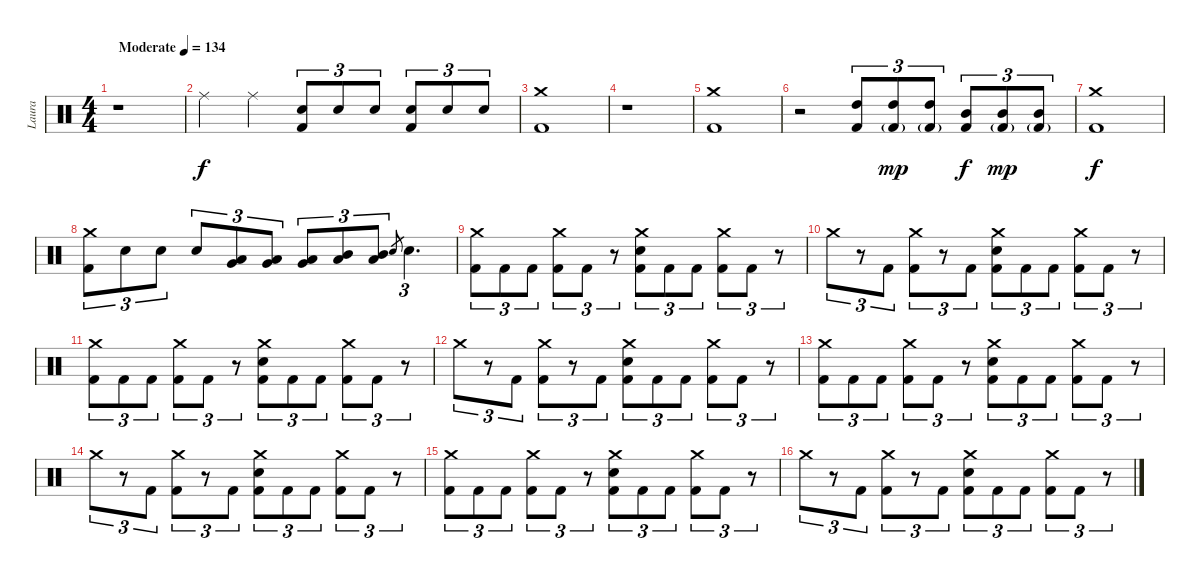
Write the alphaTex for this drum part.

\track ("Laura" "Laura") {instrument percussion}
\staff {score}
\articulation defaults
\ts (4 4)
\tempo (134 "Moderate")
\clef neutral
\ks c
r.1{dy f} |
"Ride (middle)".4 "Ride (middle)".4 ("Electric Snare (hit)" "Kick (hit) 2").8{tu (3 2)} "Electric Snare (hit)".8{tu (3 2)} "Electric Snare (hit)".8{tu (3 2)} ("Electric Snare (hit)" "Kick (hit) 2").8{tu (3 2)} "Electric Snare (hit)".8{tu (3 2)} "Electric Snare (hit)".8{tu (3 2)} |
("Crash medium (hit)" "Kick (hit) 2").1 |
r.1 |
("Crash medium (hit)" "Kick (hit) 2").1 |
r.2 ("High Tom (hit)" "Kick (hit) 2").8{tu (3 2)} ("High Tom (hit)" "Kick (hit) 2"{g}).8{tu (3 2) dy mp} ("High Tom (hit)" "Kick (hit) 2"{g}).8{tu (3 2)} ("Mid Tom (hit)" "Kick (hit) 2").8{tu (3 2) dy f} ("Mid Tom (hit)" "Kick (hit) 2"{g}).8{tu (3 2) dy mp} ("Mid Tom (hit)" "Kick (hit) 2"{g}).8{tu (3 2)} |
("Crash medium (hit)" "Kick (hit) 2").1{dy f} |
("Crash medium (hit)" "Kick (hit) 2").8{tu (3 2)} "Electric Snare (hit)".8{tu (3 2)} "Electric Snare (hit)".8{tu (3 2)} "Electric Snare (hit)".8{tu (3 2)} ("Very Low Tom (hit)" "Low Floor Tom (hit)").8{tu (3 2)} ("Very Low Tom (hit)" "Low Floor Tom (hit)").8{tu (3 2)} ("Very Low Tom (hit)" "Low Floor Tom (hit)").8{tu (3 2)} ("Mid Tom (hit)" "Low Tom (hit)").8{tu (3 2)} ("Mid Tom (hit)" "Low Tom (hit)").8{tu (3 2)} "Electric Snare (hit)".8{gr} "Electric Snare (hit)".4{d tu (3 2)} |
("Crash medium (hit)" "Kick (hit) 2").8{tu (3 2)} "Kick (hit) 2".8{tu (3 2)} "Kick (hit) 2".8{tu (3 2)} ("Crash medium (hit)" "Kick (hit) 2").8{tu (3 2)} "Kick (hit) 2".8{tu (3 2)} r.8{tu (3 2)} ("Crash medium (hit)" "Electric Snare (hit)" "Kick (hit) 2").8{tu (3 2)} "Kick (hit) 2".8{tu (3 2)} "Kick (hit) 2".8{tu (3 2)} ("Crash medium (hit)" "Kick (hit) 2").8{tu (3 2)} "Kick (hit) 2".8{tu (3 2)} r.8{tu (3 2)} |
"Crash medium (hit)".8{tu (3 2)} r.8{tu (3 2)} "Kick (hit) 2".8{tu (3 2)} ("Crash medium (hit)" "Kick (hit) 2").8{tu (3 2)} r.8{tu (3 2)} "Kick (hit) 2".8{tu (3 2)} ("Crash medium (hit)" "Electric Snare (hit)" "Kick (hit) 2").8{tu (3 2)} "Kick (hit) 2".8{tu (3 2)} "Kick (hit) 2".8{tu (3 2)} ("Crash medium (hit)" "Kick (hit) 2").8{tu (3 2)} "Kick (hit) 2".8{tu (3 2)} r.8{tu (3 2)} |
("Crash medium (hit)" "Kick (hit) 2").8{tu (3 2)} "Kick (hit) 2".8{tu (3 2)} "Kick (hit) 2".8{tu (3 2)} ("Crash medium (hit)" "Kick (hit) 2").8{tu (3 2)} "Kick (hit) 2".8{tu (3 2)} r.8{tu (3 2)} ("Crash medium (hit)" "Electric Snare (hit)" "Kick (hit) 2").8{tu (3 2)} "Kick (hit) 2".8{tu (3 2)} "Kick (hit) 2".8{tu (3 2)} ("Crash medium (hit)" "Kick (hit) 2").8{tu (3 2)} "Kick (hit) 2".8{tu (3 2)} r.8{tu (3 2)} |
"Crash medium (hit)".8{tu (3 2)} r.8{tu (3 2)} "Kick (hit) 2".8{tu (3 2)} ("Crash medium (hit)" "Kick (hit) 2").8{tu (3 2)} r.8{tu (3 2)} "Kick (hit) 2".8{tu (3 2)} ("Crash medium (hit)" "Electric Snare (hit)" "Kick (hit) 2").8{tu (3 2)} "Kick (hit) 2".8{tu (3 2)} "Kick (hit) 2".8{tu (3 2)} ("Crash medium (hit)" "Kick (hit) 2").8{tu (3 2)} "Kick (hit) 2".8{tu (3 2)} r.8{tu (3 2)} |
("Crash medium (hit)" "Kick (hit) 2").8{tu (3 2)} "Kick (hit) 2".8{tu (3 2)} "Kick (hit) 2".8{tu (3 2)} ("Crash medium (hit)" "Kick (hit) 2").8{tu (3 2)} "Kick (hit) 2".8{tu (3 2)} r.8{tu (3 2)} ("Crash medium (hit)" "Electric Snare (hit)" "Kick (hit) 2").8{tu (3 2)} "Kick (hit) 2".8{tu (3 2)} "Kick (hit) 2".8{tu (3 2)} ("Crash medium (hit)" "Kick (hit) 2").8{tu (3 2)} "Kick (hit) 2".8{tu (3 2)} r.8{tu (3 2)} |
"Crash medium (hit)".8{tu (3 2)} r.8{tu (3 2)} "Kick (hit) 2".8{tu (3 2)} ("Crash medium (hit)" "Kick (hit) 2").8{tu (3 2)} r.8{tu (3 2)} "Kick (hit) 2".8{tu (3 2)} ("Crash medium (hit)" "Electric Snare (hit)" "Kick (hit) 2").8{tu (3 2)} "Kick (hit) 2".8{tu (3 2)} "Kick (hit) 2".8{tu (3 2)} ("Crash medium (hit)" "Kick (hit) 2").8{tu (3 2)} "Kick (hit) 2".8{tu (3 2)} r.8{tu (3 2)} |
("Crash medium (hit)" "Kick (hit) 2").8{tu (3 2)} "Kick (hit) 2".8{tu (3 2)} "Kick (hit) 2".8{tu (3 2)} ("Crash medium (hit)" "Kick (hit) 2").8{tu (3 2)} "Kick (hit) 2".8{tu (3 2)} r.8{tu (3 2)} ("Crash medium (hit)" "Electric Snare (hit)" "Kick (hit) 2").8{tu (3 2)} "Kick (hit) 2".8{tu (3 2)} "Kick (hit) 2".8{tu (3 2)} ("Crash medium (hit)" "Kick (hit) 2").8{tu (3 2)} "Kick (hit) 2".8{tu (3 2)} r.8{tu (3 2)} |
"Crash medium (hit)".8{tu (3 2)} r.8{tu (3 2)} "Kick (hit) 2".8{tu (3 2)} ("Crash medium (hit)" "Kick (hit) 2").8{tu (3 2)} r.8{tu (3 2)} "Kick (hit) 2".8{tu (3 2)} ("Crash medium (hit)" "Electric Snare (hit)" "Kick (hit) 2").8{tu (3 2)} "Kick (hit) 2".8{tu (3 2)} "Kick (hit) 2".8{tu (3 2)} ("Crash medium (hit)" "Kick (hit) 2").8{tu (3 2)} "Kick (hit) 2".8{tu (3 2)} r.8{tu (3 2)}
